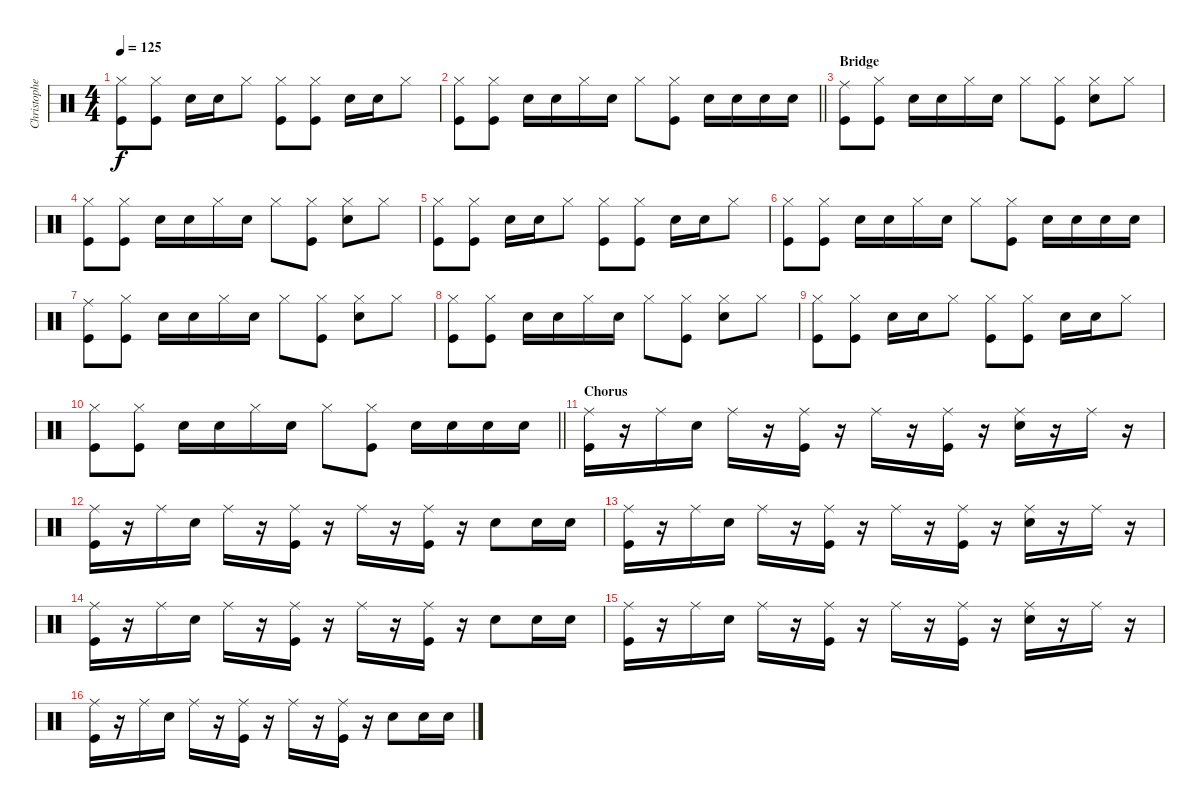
\track ("Christopher - Drums" "Christophe") {instrument percussion}
\staff {score}
\articulation defaults
\ts (4 4)
\tempo 125
\clef neutral
\ks c
("Hi-Hat (closed)" "Kick (hit)").8{dy f} ("Hi-Hat (closed)" "Kick (hit)").8 "Snare (hit) 2".16 "Snare (hit) 2".16 "Hi-Hat (closed)".8 ("Hi-Hat (closed)" "Kick (hit)").8 ("Hi-Hat (closed)" "Kick (hit)").8 "Snare (hit) 2".16 "Snare (hit) 2".16 "Hi-Hat (closed)".8 |
\barLineRight lightlight
("Hi-Hat (closed)" "Kick (hit)").8 ("Hi-Hat (closed)" "Kick (hit)").8 "Snare (hit) 2".16 "Snare (hit) 2".16 "Hi-Hat (closed)".16 "Snare (hit) 2".16 "Hi-Hat (closed)".8 ("Hi-Hat (closed)" "Kick (hit)").8 "Snare (hit) 2".16 "Snare (hit) 2".16 "Snare (hit) 2".16 "Snare (hit) 2".16 |
\section ("" "Bridge")
("Ride (middle)" "Kick (hit)").8 ("Hi-Hat (closed)" "Kick (hit)").8 "Snare (hit) 2".16 "Snare (hit) 2".16 "Hi-Hat (closed)".16 "Snare (hit) 2".16 "Hi-Hat (closed)".8 ("Hi-Hat (closed)" "Kick (hit)").8 ("Hi-Hat (closed)" "Snare (hit) 2").8 "Hi-Hat (closed)".8 |
("Hi-Hat (closed)" "Kick (hit)").8 ("Hi-Hat (closed)" "Kick (hit)").8 "Snare (hit) 2".16 "Snare (hit) 2".16 "Hi-Hat (closed)".16 "Snare (hit) 2".16 "Hi-Hat (closed)".8 ("Hi-Hat (closed)" "Kick (hit)").8 ("Hi-Hat (closed)" "Snare (hit) 2").8 "Hi-Hat (closed)".8 |
("Hi-Hat (closed)" "Kick (hit)").8 ("Hi-Hat (closed)" "Kick (hit)").8 "Snare (hit) 2".16 "Snare (hit) 2".16 "Hi-Hat (closed)".8 ("Hi-Hat (closed)" "Kick (hit)").8 ("Hi-Hat (closed)" "Kick (hit)").8 "Snare (hit) 2".16 "Snare (hit) 2".16 "Hi-Hat (closed)".8 |
("Hi-Hat (closed)" "Kick (hit)").8 ("Hi-Hat (closed)" "Kick (hit)").8 "Snare (hit) 2".16 "Snare (hit) 2".16 "Hi-Hat (closed)".16 "Snare (hit) 2".16 "Hi-Hat (closed)".8 ("Hi-Hat (closed)" "Kick (hit)").8 "Snare (hit) 2".16 "Snare (hit) 2".16 "Snare (hit) 2".16 "Snare (hit) 2".16 |
("Ride (middle)" "Kick (hit)").8 ("Hi-Hat (closed)" "Kick (hit)").8 "Snare (hit) 2".16 "Snare (hit) 2".16 "Hi-Hat (closed)".16 "Snare (hit) 2".16 "Hi-Hat (closed)".8 ("Hi-Hat (closed)" "Kick (hit)").8 ("Hi-Hat (closed)" "Snare (hit) 2").8 "Hi-Hat (closed)".8 |
("Hi-Hat (closed)" "Kick (hit)").8 ("Hi-Hat (closed)" "Kick (hit)").8 "Snare (hit) 2".16 "Snare (hit) 2".16 "Hi-Hat (closed)".16 "Snare (hit) 2".16 "Hi-Hat (closed)".8 ("Hi-Hat (closed)" "Kick (hit)").8 ("Hi-Hat (closed)" "Snare (hit) 2").8 "Hi-Hat (closed)".8 |
("Hi-Hat (closed)" "Kick (hit)").8 ("Hi-Hat (closed)" "Kick (hit)").8 "Snare (hit) 2".16 "Snare (hit) 2".16 "Hi-Hat (closed)".8 ("Hi-Hat (closed)" "Kick (hit)").8 ("Hi-Hat (closed)" "Kick (hit)").8 "Snare (hit) 2".16 "Snare (hit) 2".16 "Hi-Hat (closed)".8 |
\barLineRight lightlight
("Hi-Hat (closed)" "Kick (hit)").8 ("Hi-Hat (closed)" "Kick (hit)").8 "Snare (hit) 2".16 "Snare (hit) 2".16 "Hi-Hat (closed)".16 "Snare (hit) 2".16 "Hi-Hat (closed)".8 ("Hi-Hat (closed)" "Kick (hit)").8 "Snare (hit) 2".16 "Snare (hit) 2".16 "Snare (hit) 2".16 "Snare (hit) 2".16 |
\section ("" "Chorus")
("Ride (middle)" "Kick (hit)").16 r.16 "Ride (middle)".16 "Snare (hit) 2".16 "Ride (middle)".16 r.16 ("Ride (middle)" "Kick (hit)").16 r.16 "Ride (middle)".16 r.16 ("Ride (middle)" "Kick (hit)").16 r.16 ("Ride (middle)" "Snare (hit) 2").16 r.16 "Ride (middle)".16 r.16 |
("Ride (middle)" "Kick (hit)").16 r.16 "Ride (middle)".16 "Snare (hit) 2".16 "Ride (middle)".16 r.16 ("Ride (middle)" "Kick (hit)").16 r.16 "Ride (middle)".16 r.16 ("Ride (middle)" "Kick (hit)").16 r.16 "Snare (hit) 2".8 "Snare (hit) 2".16 "Snare (hit) 2".16 |
("Ride (middle)" "Kick (hit)").16 r.16 "Ride (middle)".16 "Snare (hit) 2".16 "Ride (middle)".16 r.16 ("Ride (middle)" "Kick (hit)").16 r.16 "Ride (middle)".16 r.16 ("Ride (middle)" "Kick (hit)").16 r.16 ("Ride (middle)" "Snare (hit) 2").16 r.16 "Ride (middle)".16 r.16 |
("Ride (middle)" "Kick (hit)").16 r.16 "Ride (middle)".16 "Snare (hit) 2".16 "Ride (middle)".16 r.16 ("Ride (middle)" "Kick (hit)").16 r.16 "Ride (middle)".16 r.16 ("Ride (middle)" "Kick (hit)").16 r.16 "Snare (hit) 2".8 "Snare (hit) 2".16 "Snare (hit) 2".16 |
("Ride (middle)" "Kick (hit)").16 r.16 "Ride (middle)".16 "Snare (hit) 2".16 "Ride (middle)".16 r.16 ("Ride (middle)" "Kick (hit)").16 r.16 "Ride (middle)".16 r.16 ("Ride (middle)" "Kick (hit)").16 r.16 ("Ride (middle)" "Snare (hit) 2").16 r.16 "Ride (middle)".16 r.16 |
("Ride (middle)" "Kick (hit)").16 r.16 "Ride (middle)".16 "Snare (hit) 2".16 "Ride (middle)".16 r.16 ("Ride (middle)" "Kick (hit)").16 r.16 "Ride (middle)".16 r.16 ("Ride (middle)" "Kick (hit)").16 r.16 "Snare (hit) 2".8 "Snare (hit) 2".16 "Snare (hit) 2".16
